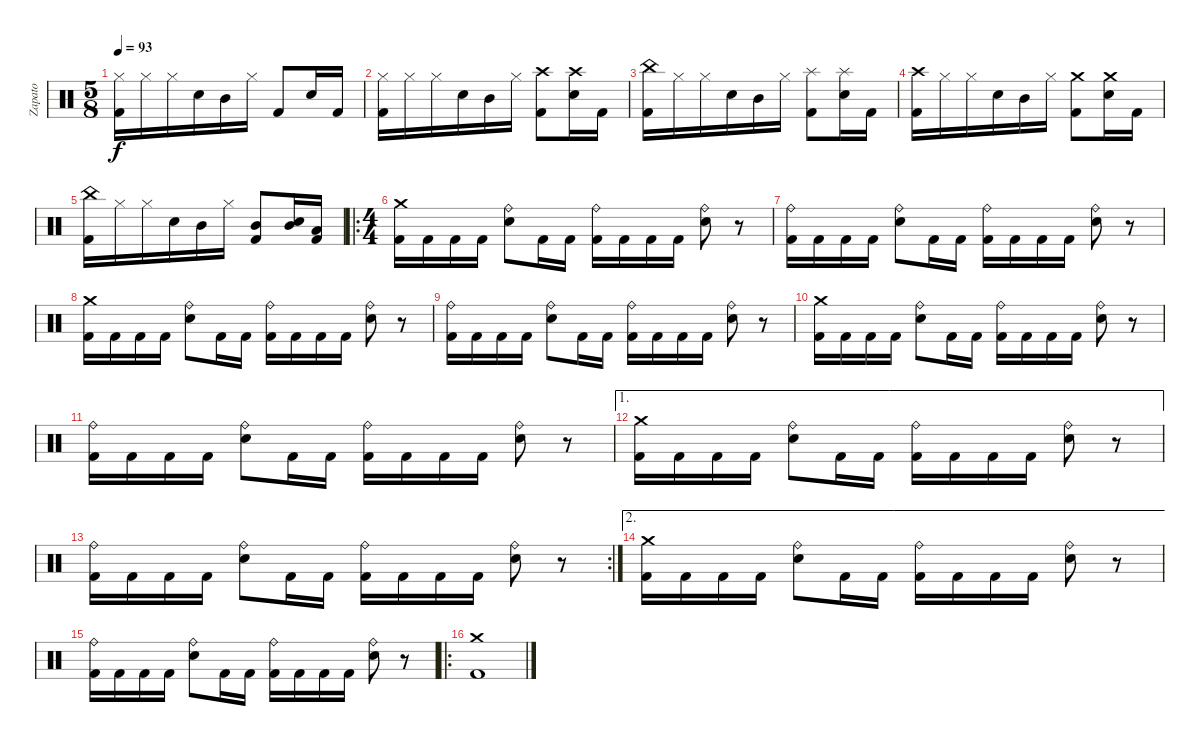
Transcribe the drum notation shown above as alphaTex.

\track ("Zapato" "Zapato") {instrument percussion}
\staff {score}
\articulation defaults
\ts (5 8)
\tempo 93
\clef neutral
\ks c
("Kick (hit) 2" "Hi-Hat (closed)").16{dy f} "Hi-Hat (closed)".16 "Hi-Hat (closed)".16 "Electric Snare (hit)".16 "Mid Tom (hit)".16 "Hi-Hat (closed)".16 "Kick (hit) 2".8 "Electric Snare (hit)".16 "Kick (hit) 2".16 |
("Kick (hit) 2" "Hi-Hat (closed)").16 "Hi-Hat (closed)".16 "Hi-Hat (closed)".16 "Electric Snare (hit)".16 "Mid Tom (hit)".16 "Hi-Hat (closed)".16 ("Kick (hit) 2" "Crash high (hit)").8 ("Electric Snare (hit)" "Crash high (hit)").16 "Kick (hit) 2".16 |
("Kick (hit) 2" "China (hit)").16 "Hi-Hat (closed)".16 "Hi-Hat (closed)".16 "Electric Snare (hit)".16 "Mid Tom (hit)".16 "Hi-Hat (closed)".16 ("Kick (hit) 2" "Splash (hit)").8 ("Electric Snare (hit)" "Splash (hit)").16 "Kick (hit) 2".16 |
("Kick (hit) 2" "Crash high (hit)").16 "Hi-Hat (closed)".16 "Hi-Hat (closed)".16 "Electric Snare (hit)".16 "Mid Tom (hit)".16 "Hi-Hat (closed)".16 ("Kick (hit) 2" "Crash medium (hit)").8 ("Electric Snare (hit)" "Crash medium (hit)").16 "Kick (hit) 2".16 |
("Kick (hit) 2" "China (hit)").16 "Hi-Hat (closed)".16 "Hi-Hat (closed)".16 "Electric Snare (hit)".16 "Mid Tom (hit)".16 "Hi-Hat (closed)".16 ("Kick (hit) 2" "Mid Tom (hit)").8 ("Electric Snare (hit)" "Mid Tom (hit)").16 ("Kick (hit) 2" "Low Floor Tom (hit)").16 |
\ro
\ts (4 4)
("Kick (hit) 2" "Crash medium (hit)").16 "Kick (hit) 2".16 "Kick (hit) 2".16 "Kick (hit) 2".16 ("Electric Snare (hit)" "Ride (bell)").8 "Kick (hit) 2".16 "Kick (hit) 2".16 ("Kick (hit) 2" "Ride (bell)").16 "Kick (hit) 2".16 "Kick (hit) 2".16 "Kick (hit) 2".16 ("Electric Snare (hit)" "Ride (bell)").8 r.8 |
("Kick (hit) 2" "Ride (bell)").16 "Kick (hit) 2".16 "Kick (hit) 2".16 "Kick (hit) 2".16 ("Electric Snare (hit)" "Ride (bell)").8 "Kick (hit) 2".16 "Kick (hit) 2".16 ("Kick (hit) 2" "Ride (bell)").16 "Kick (hit) 2".16 "Kick (hit) 2".16 "Kick (hit) 2".16 ("Electric Snare (hit)" "Ride (bell)").8 r.8 |
("Kick (hit) 2" "Crash medium (hit)").16 "Kick (hit) 2".16 "Kick (hit) 2".16 "Kick (hit) 2".16 ("Electric Snare (hit)" "Ride (bell)").8 "Kick (hit) 2".16 "Kick (hit) 2".16 ("Kick (hit) 2" "Ride (bell)").16 "Kick (hit) 2".16 "Kick (hit) 2".16 "Kick (hit) 2".16 ("Electric Snare (hit)" "Ride (bell)").8 r.8 |
("Kick (hit) 2" "Ride (bell)").16 "Kick (hit) 2".16 "Kick (hit) 2".16 "Kick (hit) 2".16 ("Electric Snare (hit)" "Ride (bell)").8 "Kick (hit) 2".16 "Kick (hit) 2".16 ("Kick (hit) 2" "Ride (bell)").16 "Kick (hit) 2".16 "Kick (hit) 2".16 "Kick (hit) 2".16 ("Electric Snare (hit)" "Ride (bell)").8 r.8 |
("Kick (hit) 2" "Crash medium (hit)").16 "Kick (hit) 2".16 "Kick (hit) 2".16 "Kick (hit) 2".16 ("Electric Snare (hit)" "Ride (bell)").8 "Kick (hit) 2".16 "Kick (hit) 2".16 ("Kick (hit) 2" "Ride (bell)").16 "Kick (hit) 2".16 "Kick (hit) 2".16 "Kick (hit) 2".16 ("Electric Snare (hit)" "Ride (bell)").8 r.8 |
("Kick (hit) 2" "Ride (bell)").16 "Kick (hit) 2".16 "Kick (hit) 2".16 "Kick (hit) 2".16 ("Electric Snare (hit)" "Ride (bell)").8 "Kick (hit) 2".16 "Kick (hit) 2".16 ("Kick (hit) 2" "Ride (bell)").16 "Kick (hit) 2".16 "Kick (hit) 2".16 "Kick (hit) 2".16 ("Electric Snare (hit)" "Ride (bell)").8 r.8 |
\ae 1
("Kick (hit) 2" "Crash medium (hit)").16 "Kick (hit) 2".16 "Kick (hit) 2".16 "Kick (hit) 2".16 ("Electric Snare (hit)" "Ride (bell)").8 "Kick (hit) 2".16 "Kick (hit) 2".16 ("Kick (hit) 2" "Ride (bell)").16 "Kick (hit) 2".16 "Kick (hit) 2".16 "Kick (hit) 2".16 ("Electric Snare (hit)" "Ride (bell)").8 r.8 |
\rc 2
("Kick (hit) 2" "Ride (bell)").16 "Kick (hit) 2".16 "Kick (hit) 2".16 "Kick (hit) 2".16 ("Electric Snare (hit)" "Ride (bell)").8 "Kick (hit) 2".16 "Kick (hit) 2".16 ("Kick (hit) 2" "Ride (bell)").16 "Kick (hit) 2".16 "Kick (hit) 2".16 "Kick (hit) 2".16 ("Electric Snare (hit)" "Ride (bell)").8 r.8 |
\ae 2
("Kick (hit) 2" "Crash medium (hit)").16 "Kick (hit) 2".16 "Kick (hit) 2".16 "Kick (hit) 2".16 ("Electric Snare (hit)" "Ride (bell)").8 "Kick (hit) 2".16 "Kick (hit) 2".16 ("Kick (hit) 2" "Ride (bell)").16 "Kick (hit) 2".16 "Kick (hit) 2".16 "Kick (hit) 2".16 ("Electric Snare (hit)" "Ride (bell)").8 r.8 |
("Kick (hit) 2" "Ride (bell)").16 "Kick (hit) 2".16 "Kick (hit) 2".16 "Kick (hit) 2".16 ("Electric Snare (hit)" "Ride (bell)").8 "Kick (hit) 2".16 "Kick (hit) 2".16 ("Kick (hit) 2" "Ride (bell)").16 "Kick (hit) 2".16 "Kick (hit) 2".16 "Kick (hit) 2".16 ("Electric Snare (hit)" "Ride (bell)").8 r.8 |
\ro
("Kick (hit) 2" "Crash medium (hit)").1
